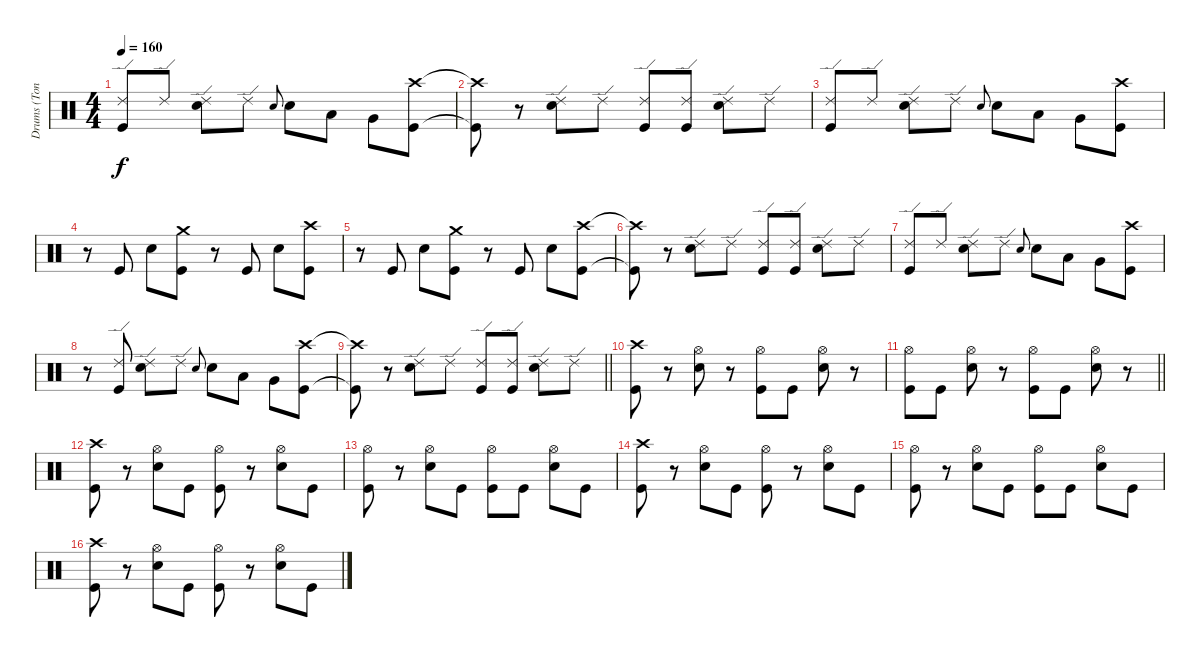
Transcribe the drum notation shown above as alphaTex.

\track ("Drums (Tony)" "Drums (Ton") {instrument percussion}
\staff {score}
\articulation defaults
\ts (4 4)
\tempo 160
\clef neutral
\ks c
("Ride (edge) 2" "Kick (hit)").8{dy f} "Ride (edge) 2".8 ("Ride (edge) 2" "Snare (hit) 2").8 "Ride (edge) 2".8 "Snare (hit) 2".8{gr onbeat} "Snare (hit) 2".8 "Low Tom (hit)".8 "Very Low Tom (hit)".8 ("Crash high (hit)" "Kick (hit)").8 |
("Crash high (hit)"{t} "Kick (hit)"{t}).8 r.8 ("Ride (edge) 2" "Snare (hit) 2").8 "Ride (edge) 2".8 ("Ride (edge) 2" "Kick (hit)").8 ("Ride (edge) 2" "Kick (hit)").8 ("Ride (edge) 2" "Snare (hit) 2").8 "Ride (edge) 2".8 |
("Ride (edge) 2" "Kick (hit)").8 "Ride (edge) 2".8 ("Ride (edge) 2" "Snare (hit) 2").8 "Ride (edge) 2".8 "Snare (hit) 2".8{gr onbeat} "Snare (hit) 2".8 "Low Tom (hit)".8 "Very Low Tom (hit)".8 ("Crash high (hit)" "Kick (hit)").8 |
r.8 "Kick (hit)".8 "Snare (hit) 2".8 ("Crash medium (hit)" "Kick (hit)").8 r.8 "Kick (hit)".8 "Snare (hit) 2".8 ("Crash high (hit)" "Kick (hit)").8 |
r.8 "Kick (hit)".8 "Snare (hit) 2".8 ("Crash medium (hit)" "Kick (hit)").8 r.8 "Kick (hit)".8 "Snare (hit) 2".8 ("Crash high (hit)" "Kick (hit)").8 |
("Crash high (hit)"{t} "Kick (hit)"{t}).8 r.8 ("Ride (edge) 2" "Snare (hit) 2").8 "Ride (edge) 2".8 ("Ride (edge) 2" "Kick (hit)").8 ("Ride (edge) 2" "Kick (hit)").8 ("Ride (edge) 2" "Snare (hit) 2").8 "Ride (edge) 2".8 |
("Ride (edge) 2" "Kick (hit)").8 "Ride (edge) 2".8 ("Ride (edge) 2" "Snare (hit) 2").8 "Ride (edge) 2".8 "Snare (hit) 2".8{gr onbeat} "Snare (hit) 2".8 "Low Tom (hit)".8 "Very Low Tom (hit)".8 ("Crash high (hit)" "Kick (hit)").8 |
r.8 ("Ride (edge) 2" "Kick (hit)").8 ("Ride (edge) 2" "Snare (hit) 2").8 "Ride (edge) 2".8 "Snare (hit) 2".8{gr onbeat} "Snare (hit) 2".8 "Low Tom (hit)".8 "Very Low Tom (hit)".8 ("Crash high (hit)" "Kick (hit)").8 |
\barLineRight lightlight
("Crash high (hit)"{t} "Kick (hit)"{t}).8 r.8 ("Ride (edge) 2" "Snare (hit) 2").8 "Ride (edge) 2".8 ("Ride (edge) 2" "Kick (hit)").8 ("Ride (edge) 2" "Kick (hit)").8 ("Ride (edge) 2" "Snare (hit) 2").8 "Ride (edge) 2".8 |
("Crash high (hit)" "Kick (hit)").8 r.8 ("Hi-Hat (open)" "Snare (hit) 2").8 r.8 ("Hi-Hat (open)" "Kick (hit)").8 "Kick (hit)".8 ("Hi-Hat (open)" "Snare (hit) 2").8 r.8 |
\barLineRight lightlight
("Hi-Hat (open)" "Kick (hit)").8 "Kick (hit)".8 ("Hi-Hat (open)" "Snare (hit) 2").8 r.8 ("Hi-Hat (open)" "Kick (hit)").8 "Kick (hit)".8 ("Hi-Hat (open)" "Snare (hit) 2").8 r.8 |
("Crash high (hit)" "Kick (hit)").8 r.8 ("Hi-Hat (open)" "Snare (hit) 2").8 "Kick (hit)".8 ("Hi-Hat (open)" "Kick (hit)").8 r.8 ("Hi-Hat (open)" "Snare (hit) 2").8 "Kick (hit)".8 |
("Hi-Hat (open)" "Kick (hit)").8 r.8 ("Hi-Hat (open)" "Snare (hit) 2").8 "Kick (hit)".8 ("Hi-Hat (open)" "Kick (hit)").8 "Kick (hit)".8 ("Hi-Hat (open)" "Snare (hit) 2").8 "Kick (hit)".8 |
("Crash high (hit)" "Kick (hit)").8 r.8 ("Hi-Hat (open)" "Snare (hit) 2").8 "Kick (hit)".8 ("Hi-Hat (open)" "Kick (hit)").8 r.8 ("Hi-Hat (open)" "Snare (hit) 2").8 "Kick (hit)".8 |
("Hi-Hat (open)" "Kick (hit)").8 r.8 ("Hi-Hat (open)" "Snare (hit) 2").8 "Kick (hit)".8 ("Hi-Hat (open)" "Kick (hit)").8 "Kick (hit)".8 ("Hi-Hat (open)" "Snare (hit) 2").8 "Kick (hit)".8 |
("Crash high (hit)" "Kick (hit)").8 r.8 ("Hi-Hat (open)" "Snare (hit) 2").8 "Kick (hit)".8 ("Hi-Hat (open)" "Kick (hit)").8 r.8 ("Hi-Hat (open)" "Snare (hit) 2").8 "Kick (hit)".8
